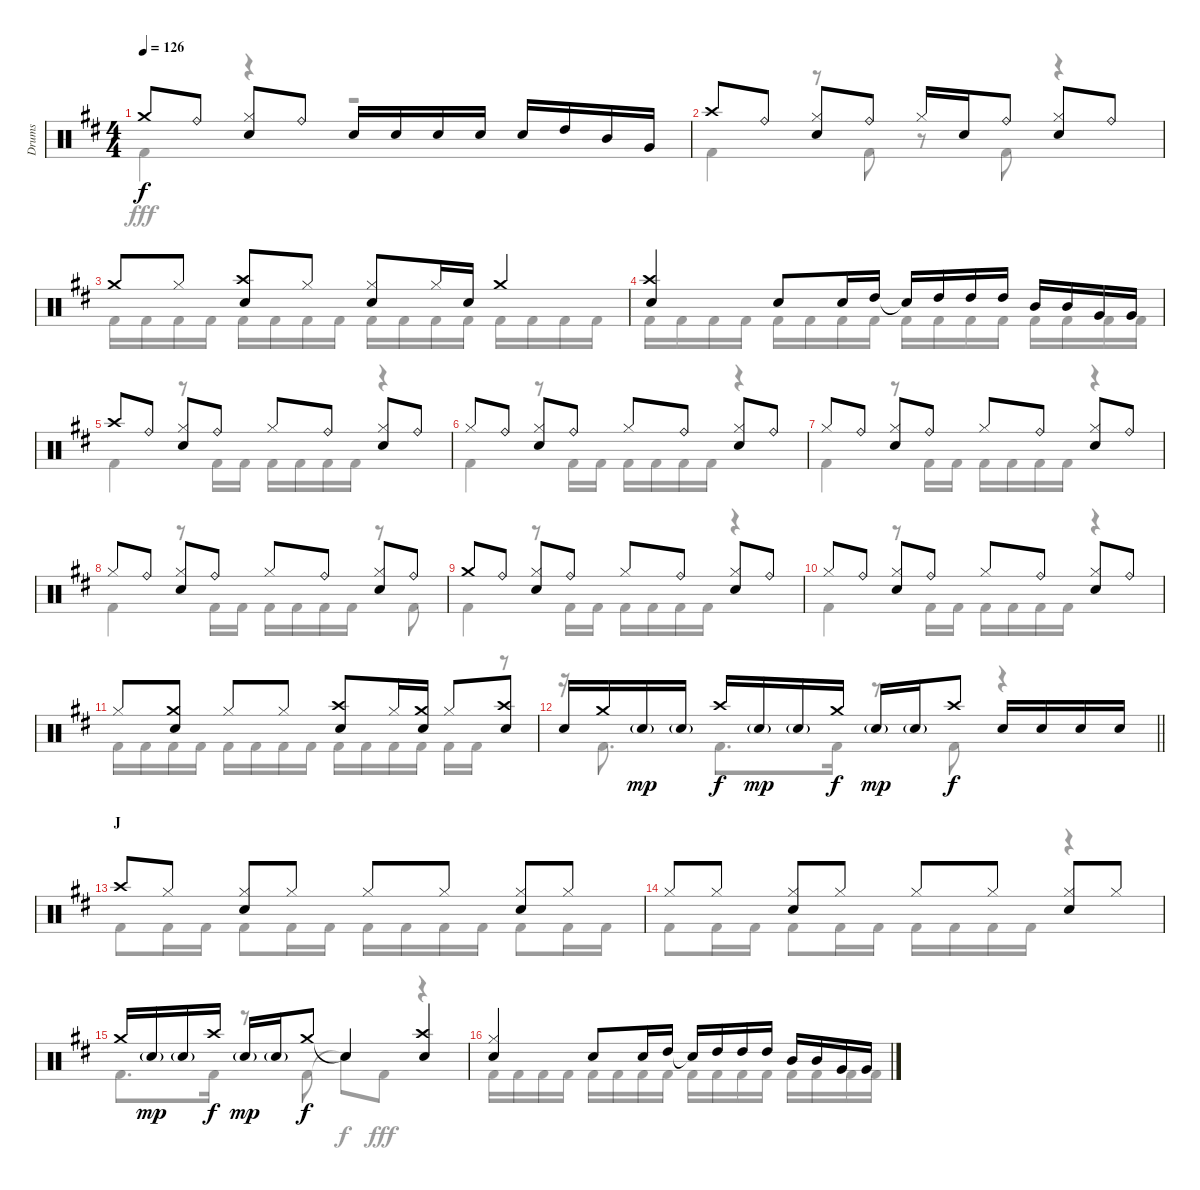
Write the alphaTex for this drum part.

\track ("Drums" "Drums") {instrument percussion}
\staff {score}
\articulation defaults
\voice
\ts (4 4)
\tempo 126
\clef neutral
\ks d "Crash medium (hit)".8{dy f} "Ride (bell)".8
("Hi-Hat (closed)" "Snare (hit) 2").8 "Ride (bell)".8 "Snare (hit) 2".16 "Snare (hit) 2".16 "Snare (hit) 2".16 "Snare (hit) 2".16 "Snare (hit) 2".16 "High Tom (hit)".16 "Mid Tom (hit)".16 "Very Low Tom (hit)".16 |
"Crash high (hit)".8 "Ride (bell)".8 ("Hi-Hat (closed)" "Snare (hit) 2").8 "Ride (bell)".8 "Hi-Hat (closed)".16 "Snare (hit) 2".16 "Ride (bell)".8 ("Hi-Hat (closed)" "Snare (hit) 2").8 "Ride (bell)".8 |
"Crash medium (hit)".8 "Hi-Hat (closed)".8 ("Crash high (hit)" "Snare (hit) 2").8 "Hi-Hat (closed)".8 ("Hi-Hat (closed)" "Snare (hit) 2").8 "Hi-Hat (closed)".16 "Snare (hit) 2".16 "Crash medium (hit)".4 |
("Crash high (hit)" "Snare (hit) 2").4 "Snare (hit) 2".8 "Snare (hit) 2".16 "High Tom (hit)".16 "Snare (hit)"{t}.16 "High Tom (hit)".16 "High Tom (hit)".16 "High Tom (hit)".16 "Mid Tom (hit)".16 "Mid Tom (hit)".16 "Very Low Tom (hit)".16 "Very Low Tom (hit)".16 |
"Crash high (hit)".8 "Ride (bell)".8 ("Hi-Hat (closed)" "Snare (hit) 2").8 "Ride (bell)".8 "Hi-Hat (closed)".8 "Ride (bell)".8 ("Hi-Hat (closed)" "Snare (hit) 2").8 "Ride (bell)".8 |
"Hi-Hat (closed)".8 "Ride (bell)".8 ("Hi-Hat (closed)" "Snare (hit) 2").8 "Ride (bell)".8 "Hi-Hat (closed)".8 "Ride (bell)".8 ("Hi-Hat (closed)" "Snare (hit) 2").8 "Ride (bell)".8 |
"Hi-Hat (closed)".8 "Ride (bell)".8 ("Hi-Hat (closed)" "Snare (hit) 2").8 "Ride (bell)".8 "Hi-Hat (closed)".8 "Ride (bell)".8 ("Hi-Hat (closed)" "Snare (hit) 2").8 "Ride (bell)".8 |
"Hi-Hat (closed)".8 "Ride (bell)".8 ("Hi-Hat (closed)" "Snare (hit) 2").8 "Ride (bell)".8 "Hi-Hat (closed)".8 "Ride (bell)".8 ("Hi-Hat (closed)" "Snare (hit) 2").8 "Ride (bell)".8 |
"Crash medium (hit)".8 "Ride (bell)".8 ("Hi-Hat (closed)" "Snare (hit) 2").8 "Ride (bell)".8 "Hi-Hat (closed)".8 "Ride (bell)".8 ("Hi-Hat (closed)" "Snare (hit) 2").8 "Ride (bell)".8 |
"Hi-Hat (closed)".8 "Ride (bell)".8 ("Hi-Hat (closed)" "Snare (hit) 2").8 "Ride (bell)".8 "Hi-Hat (closed)".8 "Ride (bell)".8 ("Hi-Hat (closed)" "Snare (hit) 2").8 "Ride (bell)".8 |
"Hi-Hat (closed)".8 ("Crash medium (hit)" "Snare (hit) 2").8 "Hi-Hat (closed)".8 "Hi-Hat (closed)".8 ("Crash high (hit)" "Snare (hit) 2").8 "Hi-Hat (closed)".16 ("Crash medium (hit)" "Snare (hit) 2").16 "Hi-Hat (closed)".8 ("Crash high (hit)" "Snare (hit) 2").8 |
\barLineRight lightlight "Snare (hit) 2".16 "Crash medium (hit)".16 "Snare (hit) 2"{g}.16{dy mp} "Snare (hit) 2"{g}.16 "Crash high (hit)".16{dy f} "Snare (hit) 2"{g}.16{dy mp} "Snare (hit) 2"{g}.16 "Crash medium (hit)".16{dy f} "Snare (hit) 2"{g}.16{dy mp} "Snare (hit) 2"{g}.16 "Crash high (hit)".8{dy f} "Snare (hit) 2".16 "Snare (hit) 2".16 "Snare (hit) 2".16 "Snare (hit) 2".16
|
\section ("" "J")
"Crash high (hit)".8 "Hi-Hat (closed)".8 ("Hi-Hat (closed)" "Snare (hit) 2").8 "Hi-Hat (closed)".8 "Hi-Hat (closed)".8 "Hi-Hat (closed)".8 ("Hi-Hat (closed)" "Snare (hit) 2").8 "Hi-Hat (closed)".8 |
"Hi-Hat (closed)".8 "Hi-Hat (closed)".8 ("Hi-Hat (closed)" "Snare (hit) 2").8 "Hi-Hat (closed)".8 "Hi-Hat (closed)".8 "Hi-Hat (closed)".8 ("Hi-Hat (closed)" "Snare (hit) 2").8 "Hi-Hat (closed)".8 |
"Crash medium (hit)".16 "Snare (hit) 2"{g}.16{dy mp} "Snare (hit) 2"{g}.16 "Crash high (hit)".16{dy f} "Snare (hit) 2"{g}.16{dy mp} "Snare (hit) 2"{g}.16 "Crash medium (hit)".8{dy f} "Snare (hit)"{t}.4 ("Crash high (hit)" "Snare (hit) 2").4 |
("Hi-Hat (closed)" "Snare (hit) 2").4 "Snare (hit) 2".8 "Snare (hit) 2".16 "High Tom (hit)".16 "Snare (hit)"{t}.16 "High Tom (hit)".16 "High Tom (hit)".16 "High Tom (hit)".16 "Mid Tom (hit)".16 "Mid Tom (hit)".16 "Very Low Tom (hit)".16 "Very Low Tom (hit)".16
\voice
\clef neutral
\ottava regular
\simile none
\ks d "Kick (hit) 2".4{dy fff}
r.4 r.2 |
"Kick (hit) 2".4 r.8 "Kick (hit) 2".8 r.8 "Kick (hit) 2".8 r.4 |
"Kick (hit) 2".16 "Kick (hit) 2".16 "Kick (hit) 2".16 "Kick (hit) 2".16 "Kick (hit) 2".16 "Kick (hit) 2".16 "Kick (hit) 2".16 "Kick (hit) 2".16 "Kick (hit) 2".16 "Kick (hit) 2".16 "Kick (hit) 2".16 "Kick (hit) 2".16 "Kick (hit) 2".16 "Kick (hit) 2".16 "Kick (hit) 2".16 "Kick (hit) 2".16 |
"Kick (hit) 2".16 "Kick (hit) 2".16 "Kick (hit) 2".16 "Kick (hit) 2".16 "Kick (hit) 2".16 "Kick (hit) 2".16 "Kick (hit) 2".16 "Kick (hit) 2".16 "Kick (hit) 2".16 "Kick (hit) 2".16 "Kick (hit) 2".16 "Kick (hit) 2".16 "Kick (hit) 2".16 "Kick (hit) 2".16 "Kick (hit) 2".16 "Kick (hit) 2".16 |
"Kick (hit) 2".4 r.8 "Kick (hit) 2".16 "Kick (hit) 2".16 "Kick (hit) 2".16 "Kick (hit) 2".16 "Kick (hit) 2".16 "Kick (hit) 2".16 r.4 |
"Kick (hit) 2".4 r.8 "Kick (hit) 2".16 "Kick (hit) 2".16 "Kick (hit) 2".16 "Kick (hit) 2".16 "Kick (hit) 2".16 "Kick (hit) 2".16 r.4 |
"Kick (hit) 2".4 r.8 "Kick (hit) 2".16 "Kick (hit) 2".16 "Kick (hit) 2".16 "Kick (hit) 2".16 "Kick (hit) 2".16 "Kick (hit) 2".16 r.4 |
"Kick (hit) 2".4 r.8 "Kick (hit) 2".16 "Kick (hit) 2".16 "Kick (hit) 2".16 "Kick (hit) 2".16 "Kick (hit) 2".16 "Kick (hit) 2".16 r.8 "Kick (hit) 2".8 |
"Kick (hit) 2".4 r.8 "Kick (hit) 2".16 "Kick (hit) 2".16 "Kick (hit) 2".16 "Kick (hit) 2".16 "Kick (hit) 2".16 "Kick (hit) 2".16 r.4 |
"Kick (hit) 2".4 r.8 "Kick (hit) 2".16 "Kick (hit) 2".16 "Kick (hit) 2".16 "Kick (hit) 2".16 "Kick (hit) 2".16 "Kick (hit) 2".16 r.4 |
"Kick (hit) 2".16 "Kick (hit) 2".16 "Kick (hit) 2".16 "Kick (hit) 2".16 "Kick (hit) 2".16 "Kick (hit) 2".16 "Kick (hit) 2".16 "Kick (hit) 2".16 "Kick (hit) 2".16 "Kick (hit) 2".16 "Kick (hit) 2".16 "Kick (hit) 2".16 "Kick (hit) 2".16 "Kick (hit) 2".16 r.8 |
\barLineRight lightlight
r.16 "Kick (hit) 2".8{d} "Kick (hit) 2".8{d} "Kick (hit) 2".16 r.8 "Kick (hit) 2".8 r.4 |
"Kick (hit) 2".8 "Kick (hit) 2".16 "Kick (hit) 2".16 "Kick (hit) 2".8 "Kick (hit) 2".16 "Kick (hit) 2".16 "Kick (hit) 2".16 "Kick (hit) 2".16 "Kick (hit) 2".16 "Kick (hit) 2".16 "Kick (hit) 2".8 "Kick (hit) 2".16 "Kick (hit) 2".16 |
"Kick (hit) 2".8 "Kick (hit) 2".16 "Kick (hit) 2".16 "Kick (hit) 2".8 "Kick (hit) 2".16 "Kick (hit) 2".16 "Kick (hit) 2".16 "Kick (hit) 2".16 "Kick (hit) 2".16 "Kick (hit) 2".16 r.4 |
"Kick (hit) 2".8{d} "Kick (hit) 2".16 r.8 "Kick (hit) 2".8 "Snare (hit)"{t}.8{dy f} "Kick (hit) 2".8{dy fff} r.4 |
"Kick (hit) 2".16 "Kick (hit) 2".16 "Kick (hit) 2".16 "Kick (hit) 2".16 "Kick (hit) 2".16 "Kick (hit) 2".16 "Kick (hit) 2".16 "Kick (hit) 2".16 "Kick (hit) 2".16 "Kick (hit) 2".16 "Kick (hit) 2".16 "Kick (hit) 2".16 "Kick (hit) 2".16 "Kick (hit) 2".16 "Kick (hit) 2".16 "Kick (hit) 2".16
